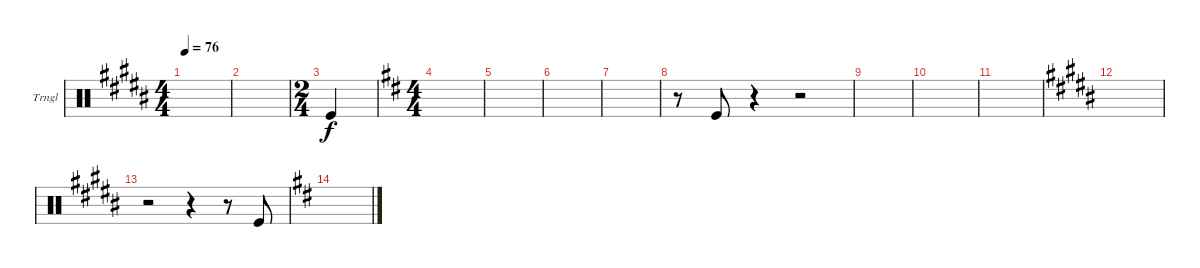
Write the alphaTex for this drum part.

\defaultSystemsLayout 4
\bracketExtendMode groupsimilarinstruments
\firstSystemTrackNameOrientation horizontal
\otherSystemsTrackNameOrientation horizontal
\track ("Temple Bells (Collins)" "Trngl") {instrument percussion}
\staff {score}
\articulation defaults
\ts (4 4)
\scale
0.62531
\tempo 76
\accidentals auto
\clef neutral
\ottava regular
\simile none
\ks b
|
\scale
0.37469 |
\ts (2 4)
\scale
0.269481 "Kick (hit)".4 |
\ts (4 4)
\scale
0.730519
\ks d
|
\scale
0.565789 |
\scale
0.434211 |
\scale
0.5 |
\scale
0.5 r.8 "Kick (hit)".8{dy f} r.4 r.2 |
\scale
0.5 |
\scale
0.5 |
\scale
0.536585 |
\scale
0.463415
\ks b
|
\scale
0.337349 r.2 r.4 r.8 "Kick (hit)".8 |
\scale
0.662651
\ks d
|
\scale
0.4125 |
\scale
0.5875
